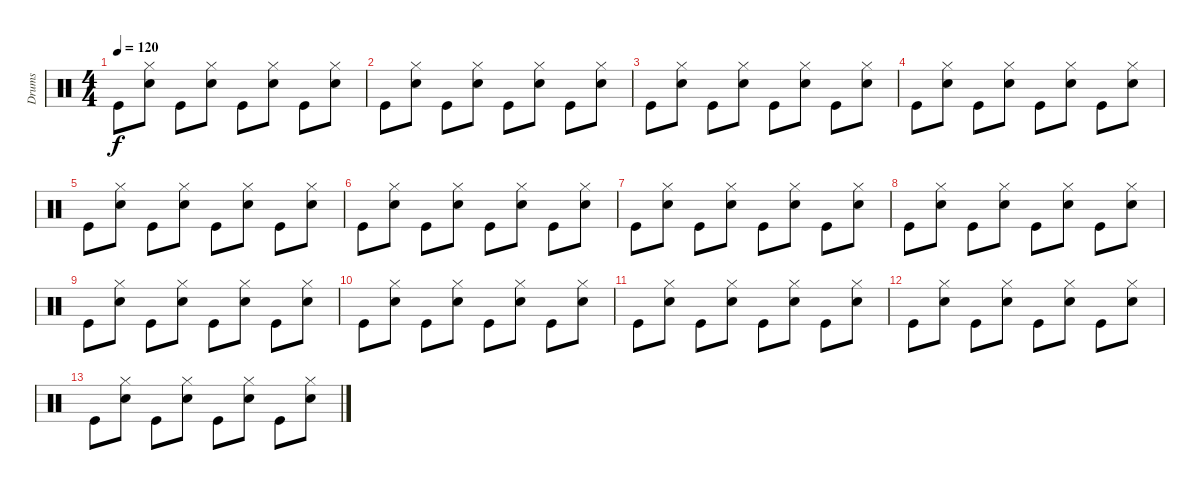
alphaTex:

\track ("Drums" "Drums") {instrument percussion}
\staff {score}
\articulation defaults
\ts (4 4)
\tempo 120
\clef neutral
\ks c "Kick (hit)".8{dy f}
("Hi-Hat (closed)" "Snare (hit) 2").8 "Kick (hit)".8 ("Hi-Hat (closed)" "Snare (hit) 2").8 "Kick (hit)".8 ("Hi-Hat (closed)" "Snare (hit) 2").8 "Kick (hit)".8 ("Hi-Hat (closed)" "Snare (hit) 2").8 |
"Kick (hit)".8 ("Hi-Hat (closed)" "Snare (hit) 2").8 "Kick (hit)".8 ("Hi-Hat (closed)" "Snare (hit) 2").8 "Kick (hit)".8 ("Hi-Hat (closed)" "Snare (hit) 2").8 "Kick (hit)".8 ("Hi-Hat (closed)" "Snare (hit) 2").8 |
"Kick (hit)".8 ("Hi-Hat (closed)" "Snare (hit) 2").8 "Kick (hit)".8 ("Hi-Hat (closed)" "Snare (hit) 2").8 "Kick (hit)".8 ("Hi-Hat (closed)" "Snare (hit) 2").8 "Kick (hit)".8 ("Hi-Hat (closed)" "Snare (hit) 2").8 |
"Kick (hit)".8 ("Hi-Hat (closed)" "Snare (hit) 2").8 "Kick (hit)".8 ("Hi-Hat (closed)" "Snare (hit) 2").8 "Kick (hit)".8 ("Hi-Hat (closed)" "Snare (hit) 2").8 "Kick (hit)".8 ("Hi-Hat (closed)" "Snare (hit) 2").8 |
"Kick (hit)".8 ("Hi-Hat (closed)" "Snare (hit) 2").8 "Kick (hit)".8 ("Hi-Hat (closed)" "Snare (hit) 2").8 "Kick (hit)".8 ("Hi-Hat (closed)" "Snare (hit) 2").8 "Kick (hit)".8 ("Hi-Hat (closed)" "Snare (hit) 2").8 |
"Kick (hit)".8 ("Hi-Hat (closed)" "Snare (hit) 2").8 "Kick (hit)".8 ("Hi-Hat (closed)" "Snare (hit) 2").8 "Kick (hit)".8 ("Hi-Hat (closed)" "Snare (hit) 2").8 "Kick (hit)".8 ("Hi-Hat (closed)" "Snare (hit) 2").8 |
"Kick (hit)".8 ("Hi-Hat (closed)" "Snare (hit) 2").8 "Kick (hit)".8 ("Hi-Hat (closed)" "Snare (hit) 2").8 "Kick (hit)".8 ("Hi-Hat (closed)" "Snare (hit) 2").8 "Kick (hit)".8 ("Hi-Hat (closed)" "Snare (hit) 2").8 |
"Kick (hit)".8 ("Hi-Hat (closed)" "Snare (hit) 2").8 "Kick (hit)".8 ("Hi-Hat (closed)" "Snare (hit) 2").8 "Kick (hit)".8 ("Hi-Hat (closed)" "Snare (hit) 2").8 "Kick (hit)".8 ("Hi-Hat (closed)" "Snare (hit) 2").8 |
"Kick (hit)".8 ("Hi-Hat (closed)" "Snare (hit) 2").8 "Kick (hit)".8 ("Hi-Hat (closed)" "Snare (hit) 2").8 "Kick (hit)".8 ("Hi-Hat (closed)" "Snare (hit) 2").8 "Kick (hit)".8 ("Hi-Hat (closed)" "Snare (hit) 2").8 |
"Kick (hit)".8 ("Hi-Hat (closed)" "Snare (hit) 2").8 "Kick (hit)".8 ("Hi-Hat (closed)" "Snare (hit) 2").8 "Kick (hit)".8 ("Hi-Hat (closed)" "Snare (hit) 2").8 "Kick (hit)".8 ("Hi-Hat (closed)" "Snare (hit) 2").8 |
"Kick (hit)".8 ("Hi-Hat (closed)" "Snare (hit) 2").8 "Kick (hit)".8 ("Hi-Hat (closed)" "Snare (hit) 2").8 "Kick (hit)".8 ("Hi-Hat (closed)" "Snare (hit) 2").8 "Kick (hit)".8 ("Hi-Hat (closed)" "Snare (hit) 2").8 |
"Kick (hit)".8 ("Hi-Hat (closed)" "Snare (hit) 2").8 "Kick (hit)".8 ("Hi-Hat (closed)" "Snare (hit) 2").8 "Kick (hit)".8 ("Hi-Hat (closed)" "Snare (hit) 2").8 "Kick (hit)".8 ("Hi-Hat (closed)" "Snare (hit) 2").8 |
"Kick (hit)".8 ("Hi-Hat (closed)" "Snare (hit) 2").8 "Kick (hit)".8 ("Hi-Hat (closed)" "Snare (hit) 2").8 "Kick (hit)".8 ("Hi-Hat (closed)" "Snare (hit) 2").8 "Kick (hit)".8 ("Hi-Hat (closed)" "Snare (hit) 2").8
